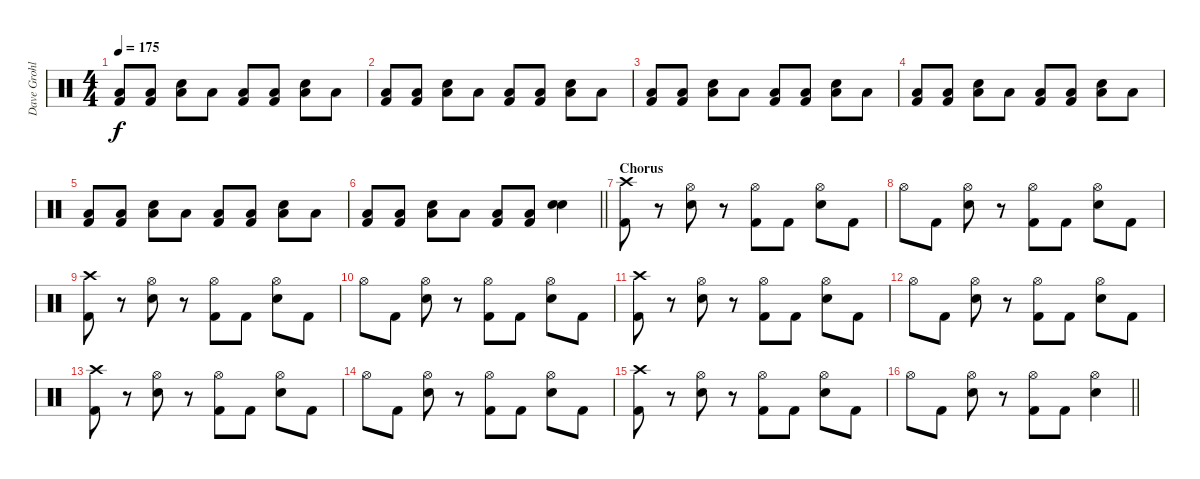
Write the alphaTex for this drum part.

\track ("Dave Grohl" "Dave Grohl") {solo instrument percussion}
\staff {score}
\articulation defaults
\ts (4 4)
\tempo 175
\clef neutral
\ks c
("Low Tom (hit)" "Kick (hit) 2").8{dy f} ("Low Tom (hit)" "Kick (hit) 2").8 ("Electric Snare (hit)" "Low Tom (hit)").8 "Low Tom (hit)".8 ("Low Tom (hit)" "Kick (hit) 2").8 ("Low Tom (hit)" "Kick (hit) 2").8 ("Electric Snare (hit)" "Low Tom (hit)").8 "Low Tom (hit)".8 |
("Low Tom (hit)" "Kick (hit) 2").8 ("Low Tom (hit)" "Kick (hit) 2").8 ("Electric Snare (hit)" "Low Tom (hit)").8 "Low Tom (hit)".8 ("Low Tom (hit)" "Kick (hit) 2").8 ("Low Tom (hit)" "Kick (hit) 2").8 ("Electric Snare (hit)" "Low Tom (hit)").8 "Low Tom (hit)".8 |
("Low Tom (hit)" "Kick (hit) 2").8 ("Low Tom (hit)" "Kick (hit) 2").8 ("Electric Snare (hit)" "Low Tom (hit)").8 "Low Tom (hit)".8 ("Low Tom (hit)" "Kick (hit) 2").8 ("Low Tom (hit)" "Kick (hit) 2").8 ("Electric Snare (hit)" "Low Tom (hit)").8 "Low Tom (hit)".8 |
("Low Tom (hit)" "Kick (hit) 2").8 ("Low Tom (hit)" "Kick (hit) 2").8 ("Electric Snare (hit)" "Low Tom (hit)").8 "Low Tom (hit)".8 ("Low Tom (hit)" "Kick (hit) 2").8 ("Low Tom (hit)" "Kick (hit) 2").8 ("Electric Snare (hit)" "Low Tom (hit)").8 "Low Tom (hit)".8 |
("Low Tom (hit)" "Kick (hit) 2").8 ("Low Tom (hit)" "Kick (hit) 2").8 ("Electric Snare (hit)" "Low Tom (hit)").8 "Low Tom (hit)".8 ("Low Tom (hit)" "Kick (hit) 2").8 ("Low Tom (hit)" "Kick (hit) 2").8 ("Electric Snare (hit)" "Low Tom (hit)").8 "Low Tom (hit)".8 |
\barLineRight lightlight
("Low Tom (hit)" "Kick (hit) 2").8 ("Low Tom (hit)" "Kick (hit) 2").8 ("Electric Snare (hit)" "Low Tom (hit)").8 "Low Tom (hit)".8 ("Low Tom (hit)" "Kick (hit) 2").8 ("Low Tom (hit)" "Kick (hit) 2").8 ("Electric Snare (hit)" "Electric Snare (hit)").4 |
\section ("" "Chorus")
("Crash high (hit)" "Kick (hit) 2").8 r.8 ("Hi-Hat (open)" "Electric Snare (hit)").8 r.8 ("Hi-Hat (open)" "Kick (hit) 2").8 "Kick (hit) 2".8 ("Hi-Hat (open)" "Electric Snare (hit)").8 "Kick (hit) 2".8 |
"Hi-Hat (open)".8 "Kick (hit) 2".8 ("Hi-Hat (open)" "Electric Snare (hit)").8 r.8 ("Hi-Hat (open)" "Kick (hit) 2").8 "Kick (hit) 2".8 ("Hi-Hat (open)" "Electric Snare (hit)").8 "Kick (hit) 2".8 |
("Crash high (hit)" "Kick (hit) 2").8 r.8 ("Hi-Hat (open)" "Electric Snare (hit)").8 r.8 ("Hi-Hat (open)" "Kick (hit) 2").8 "Kick (hit) 2".8 ("Hi-Hat (open)" "Electric Snare (hit)").8 "Kick (hit) 2".8 |
"Hi-Hat (open)".8 "Kick (hit) 2".8 ("Hi-Hat (open)" "Electric Snare (hit)").8 r.8 ("Hi-Hat (open)" "Kick (hit) 2").8 "Kick (hit) 2".8 ("Hi-Hat (open)" "Electric Snare (hit)").8 "Kick (hit) 2".8 |
("Crash high (hit)" "Kick (hit) 2").8 r.8 ("Hi-Hat (open)" "Electric Snare (hit)").8 r.8 ("Hi-Hat (open)" "Kick (hit) 2").8 "Kick (hit) 2".8 ("Hi-Hat (open)" "Electric Snare (hit)").8 "Kick (hit) 2".8 |
"Hi-Hat (open)".8 "Kick (hit) 2".8 ("Hi-Hat (open)" "Electric Snare (hit)").8 r.8 ("Hi-Hat (open)" "Kick (hit) 2").8 "Kick (hit) 2".8 ("Hi-Hat (open)" "Electric Snare (hit)").8 "Kick (hit) 2".8 |
("Crash high (hit)" "Kick (hit) 2").8 r.8 ("Hi-Hat (open)" "Electric Snare (hit)").8 r.8 ("Hi-Hat (open)" "Kick (hit) 2").8 "Kick (hit) 2".8 ("Hi-Hat (open)" "Electric Snare (hit)").8 "Kick (hit) 2".8 |
"Hi-Hat (open)".8 "Kick (hit) 2".8 ("Hi-Hat (open)" "Electric Snare (hit)").8 r.8 ("Hi-Hat (open)" "Kick (hit) 2").8 "Kick (hit) 2".8 ("Hi-Hat (open)" "Electric Snare (hit)").8 "Kick (hit) 2".8 |
("Crash high (hit)" "Kick (hit) 2").8 r.8 ("Hi-Hat (open)" "Electric Snare (hit)").8 r.8 ("Hi-Hat (open)" "Kick (hit) 2").8 "Kick (hit) 2".8 ("Hi-Hat (open)" "Electric Snare (hit)").8 "Kick (hit) 2".8 |
\barLineRight lightlight "Hi-Hat (open)".8 "Kick (hit) 2".8
("Hi-Hat (open)" "Electric Snare (hit)").8 r.8 ("Hi-Hat (open)" "Kick (hit) 2").8 "Kick (hit) 2".8 ("Hi-Hat (open)" "Electric Snare (hit)").4
